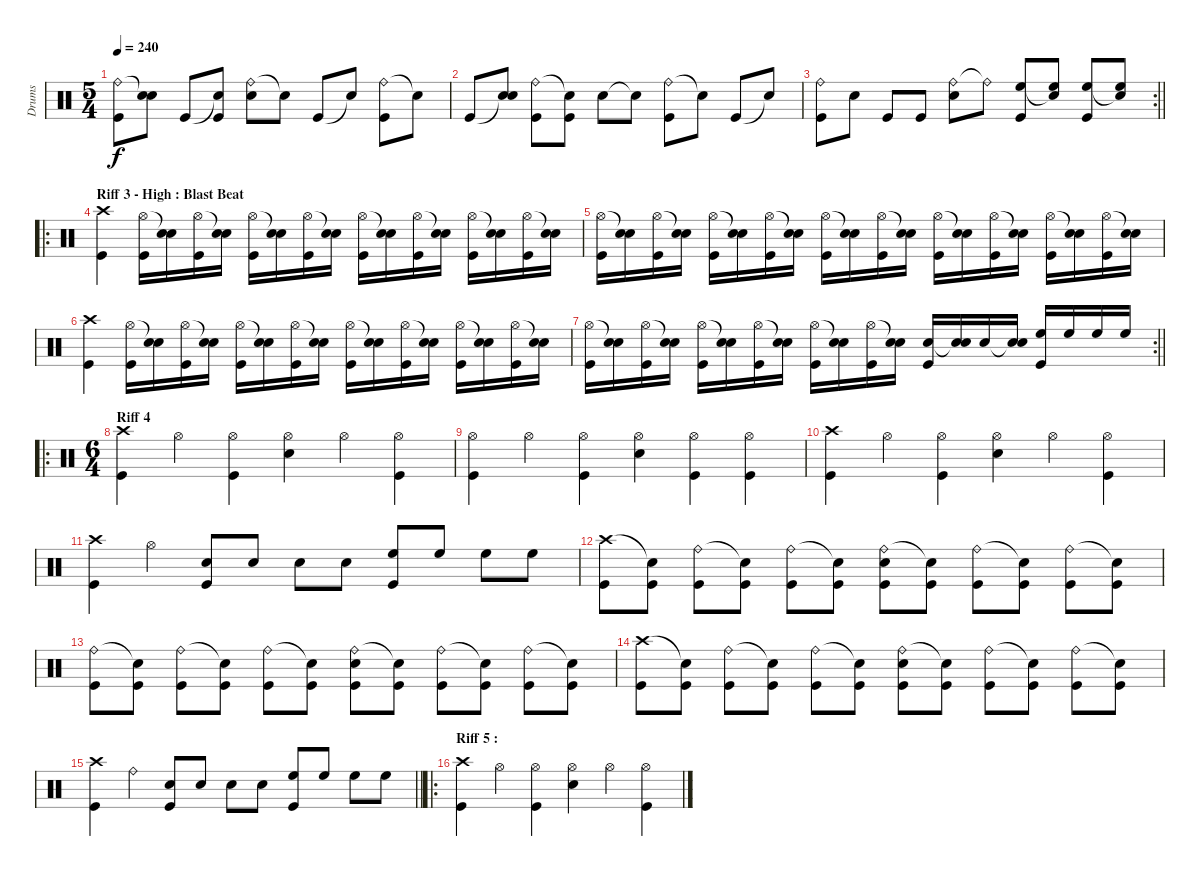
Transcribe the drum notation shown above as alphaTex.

\track ("Drums " "Drums ") {instrument percussion}
\staff {score}
\articulation defaults
\ts (5 4)
\tempo 240
\clef neutral
\ks c
("Ride (bell)" "Kick (hit)").8{dy f} ("Snare (hit)"{t} "Electric Snare (hit)").8 "Kick (hit)".8 ("Snare (hit)"{t} "Kick (hit)").8 ("Ride (bell)" "Electric Snare (hit)").8 "Snare (hit)"{t}.8 "Kick (hit)".8 "Snare (hit)"{t}.8 ("Ride (bell)" "Kick (hit)").8 "Snare (hit)"{t}.8 |
"Kick (hit)".8 ("Snare (hit)"{t} "Electric Snare (hit)").8 ("Ride (bell)" "Kick (hit)").8 ("Snare (hit)"{t} "Kick (hit)").8 "Electric Snare (hit)".8 "Snare (hit)"{t}.8 ("Ride (bell)" "Kick (hit)").8 "Snare (hit)"{t}.8 "Kick (hit)".8 "Snare (hit)"{t}.8 |
\rc 2
\barLineRight lightlight
("Ride (bell)" "Kick (hit)").8 "Electric Snare (hit)".8 "Kick (hit)".8 "Kick (hit)".8 ("Ride (bell)" "Electric Snare (hit)").8 "Ride (bell)"{t}.8 ("High Floor Tom (hit)" "Kick (hit)").8 ("Snare (hit)"{t} "High Floor Tom (hit)").8 ("High Floor Tom (hit)" "Kick (hit)").8 ("Snare (hit)"{t} "High Floor Tom (hit)").8 |
\ro
\section ("" "Riff 3 - High : Blast Beat")
("Crash high (hit)" "Kick (hit)").4 ("Hi-Hat (open)" "Kick (hit)").16 ("Snare (hit)"{t} "Electric Snare (hit)").16 ("Hi-Hat (open)" "Kick (hit)").16 ("Snare (hit)"{t} "Electric Snare (hit)").16 ("Hi-Hat (open)" "Kick (hit)").16 ("Snare (hit)"{t} "Electric Snare (hit)").16 ("Hi-Hat (open)" "Kick (hit)").16 ("Snare (hit)"{t} "Electric Snare (hit)").16 ("Hi-Hat (open)" "Kick (hit)").16 ("Snare (hit)"{t} "Electric Snare (hit)").16 ("Hi-Hat (open)" "Kick (hit)").16 ("Snare (hit)"{t} "Electric Snare (hit)").16 ("Hi-Hat (open)" "Kick (hit)").16 ("Snare (hit)"{t} "Electric Snare (hit)").16 ("Hi-Hat (open)" "Kick (hit)").16 ("Snare (hit)"{t} "Electric Snare (hit)").16 |
("Hi-Hat (open)" "Kick (hit)").16 ("Snare (hit)"{t} "Electric Snare (hit)").16 ("Hi-Hat (open)" "Kick (hit)").16 ("Snare (hit)"{t} "Electric Snare (hit)").16 ("Hi-Hat (open)" "Kick (hit)").16 ("Snare (hit)"{t} "Electric Snare (hit)").16 ("Hi-Hat (open)" "Kick (hit)").16 ("Snare (hit)"{t} "Electric Snare (hit)").16 ("Hi-Hat (open)" "Kick (hit)").16 ("Snare (hit)"{t} "Electric Snare (hit)").16 ("Hi-Hat (open)" "Kick (hit)").16 ("Snare (hit)"{t} "Electric Snare (hit)").16 ("Hi-Hat (open)" "Kick (hit)").16 ("Snare (hit)"{t} "Electric Snare (hit)").16 ("Hi-Hat (open)" "Kick (hit)").16 ("Snare (hit)"{t} "Electric Snare (hit)").16 ("Hi-Hat (open)" "Kick (hit)").16 ("Snare (hit)"{t} "Electric Snare (hit)").16 ("Hi-Hat (open)" "Kick (hit)").16 ("Snare (hit)"{t} "Electric Snare (hit)").16 |
("Crash high (hit)" "Kick (hit)").4 ("Hi-Hat (open)" "Kick (hit)").16 ("Snare (hit)"{t} "Electric Snare (hit)").16 ("Hi-Hat (open)" "Kick (hit)").16 ("Snare (hit)"{t} "Electric Snare (hit)").16 ("Hi-Hat (open)" "Kick (hit)").16 ("Snare (hit)"{t} "Electric Snare (hit)").16 ("Hi-Hat (open)" "Kick (hit)").16 ("Snare (hit)"{t} "Electric Snare (hit)").16 ("Hi-Hat (open)" "Kick (hit)").16 ("Snare (hit)"{t} "Electric Snare (hit)").16 ("Hi-Hat (open)" "Kick (hit)").16 ("Snare (hit)"{t} "Electric Snare (hit)").16 ("Hi-Hat (open)" "Kick (hit)").16 ("Snare (hit)"{t} "Electric Snare (hit)").16 ("Hi-Hat (open)" "Kick (hit)").16 ("Snare (hit)"{t} "Electric Snare (hit)").16 |
\rc 2
\barLineRight lightlight
("Hi-Hat (open)" "Kick (hit)").16 ("Snare (hit)"{t} "Electric Snare (hit)").16 ("Hi-Hat (open)" "Kick (hit)").16 ("Snare (hit)"{t} "Electric Snare (hit)").16 ("Hi-Hat (open)" "Kick (hit)").16 ("Snare (hit)"{t} "Electric Snare (hit)").16 ("Hi-Hat (open)" "Kick (hit)").16 ("Snare (hit)"{t} "Electric Snare (hit)").16 ("Hi-Hat (open)" "Kick (hit)").16 ("Snare (hit)"{t} "Electric Snare (hit)").16 ("Hi-Hat (open)" "Kick (hit)").16 ("Snare (hit)"{t} "Electric Snare (hit)").16 ("Electric Snare (hit)" "Kick (hit)").16 ("Snare (hit)"{t} "Electric Snare (hit)").16 "Electric Snare (hit)".16 ("Snare (hit)"{t} "Electric Snare (hit)").16 ("High Floor Tom (hit)" "Kick (hit)").16 "High Floor Tom (hit)".16 "High Floor Tom (hit)".16 "High Floor Tom (hit)".16 |
\ro
\ts (6 4)
\section ("" "Riff 4")
("Crash high (hit)" "Kick (hit)").4 "Hi-Hat (open)".4 ("Hi-Hat (open)" "Kick (hit)").4 ("Hi-Hat (open)" "Electric Snare (hit)").4 "Hi-Hat (open)".4 ("Hi-Hat (open)" "Kick (hit)").4 |
("Hi-Hat (open)" "Kick (hit)").4 "Hi-Hat (open)".4 ("Hi-Hat (open)" "Kick (hit)").4 ("Hi-Hat (open)" "Electric Snare (hit)").4 ("Hi-Hat (open)" "Kick (hit)").4 ("Hi-Hat (open)" "Kick (hit)").4 |
("Crash high (hit)" "Kick (hit)").4 "Hi-Hat (open)".4 ("Hi-Hat (open)" "Kick (hit)").4 ("Hi-Hat (open)" "Electric Snare (hit)").4 "Hi-Hat (open)".4 ("Hi-Hat (open)" "Kick (hit)").4 |
("Crash high (hit)" "Kick (hit)").4 "Hi-Hat (open)".4 ("Electric Snare (hit)" "Kick (hit)").8 "Electric Snare (hit)".8 "Electric Snare (hit)".8 "Electric Snare (hit)".8 ("High Floor Tom (hit)" "Kick (hit)").8 "High Floor Tom (hit)".8 "High Floor Tom (hit)".8 "High Floor Tom (hit)".8 |
("Crash high (hit)" "Kick (hit)").8 ("Snare (hit)"{t} "Kick (hit)").8 ("Ride (bell)" "Kick (hit)").8 ("Snare (hit)"{t} "Kick (hit)").8 ("Ride (bell)" "Kick (hit)").8 ("Snare (hit)"{t} "Kick (hit)").8 ("Ride (bell)" "Electric Snare (hit)" "Kick (hit)").8 ("Snare (hit)"{t} "Kick (hit)").8 ("Ride (bell)" "Kick (hit)").8 ("Snare (hit)"{t} "Kick (hit)").8 ("Ride (bell)" "Kick (hit)").8 ("Snare (hit)"{t} "Kick (hit)").8 |
("Ride (bell)" "Kick (hit)").8 ("Snare (hit)"{t} "Kick (hit)").8 ("Ride (bell)" "Kick (hit)").8 ("Snare (hit)"{t} "Kick (hit)").8 ("Ride (bell)" "Kick (hit)").8 ("Snare (hit)"{t} "Kick (hit)").8 ("Ride (bell)" "Electric Snare (hit)" "Kick (hit)").8 ("Snare (hit)"{t} "Kick (hit)").8 ("Ride (bell)" "Kick (hit)").8 ("Snare (hit)"{t} "Kick (hit)").8 ("Ride (bell)" "Kick (hit)").8 ("Snare (hit)"{t} "Kick (hit)").8 |
("Crash high (hit)" "Kick (hit)").8 ("Snare (hit)"{t} "Kick (hit)").8 ("Ride (bell)" "Kick (hit)").8 ("Snare (hit)"{t} "Kick (hit)").8 ("Ride (bell)" "Kick (hit)").8 ("Snare (hit)"{t} "Kick (hit)").8 ("Ride (bell)" "Electric Snare (hit)" "Kick (hit)").8 ("Snare (hit)"{t} "Kick (hit)").8 ("Ride (bell)" "Kick (hit)").8 ("Snare (hit)"{t} "Kick (hit)").8 ("Ride (bell)" "Kick (hit)").8 ("Snare (hit)"{t} "Kick (hit)").8 |
\barLineRight lightlight
("Crash high (hit)" "Kick (hit)").4 "Ride (bell)".4 ("Electric Snare (hit)" "Kick (hit)").8 "Electric Snare (hit)".8 "Electric Snare (hit)".8 "Electric Snare (hit)".8 ("High Floor Tom (hit)" "Kick (hit)").8 "High Floor Tom (hit)".8 "High Floor Tom (hit)".8 "High Floor Tom (hit)".8 |
\ro
\section ("" "Riff 5 :")
("Crash high (hit)" "Kick (hit)").4 "Hi-Hat (open)".4 ("Hi-Hat (open)" "Kick (hit)").4 ("Hi-Hat (open)" "Electric Snare (hit)").4 "Hi-Hat (open)".4 ("Hi-Hat (open)" "Kick (hit)").4
